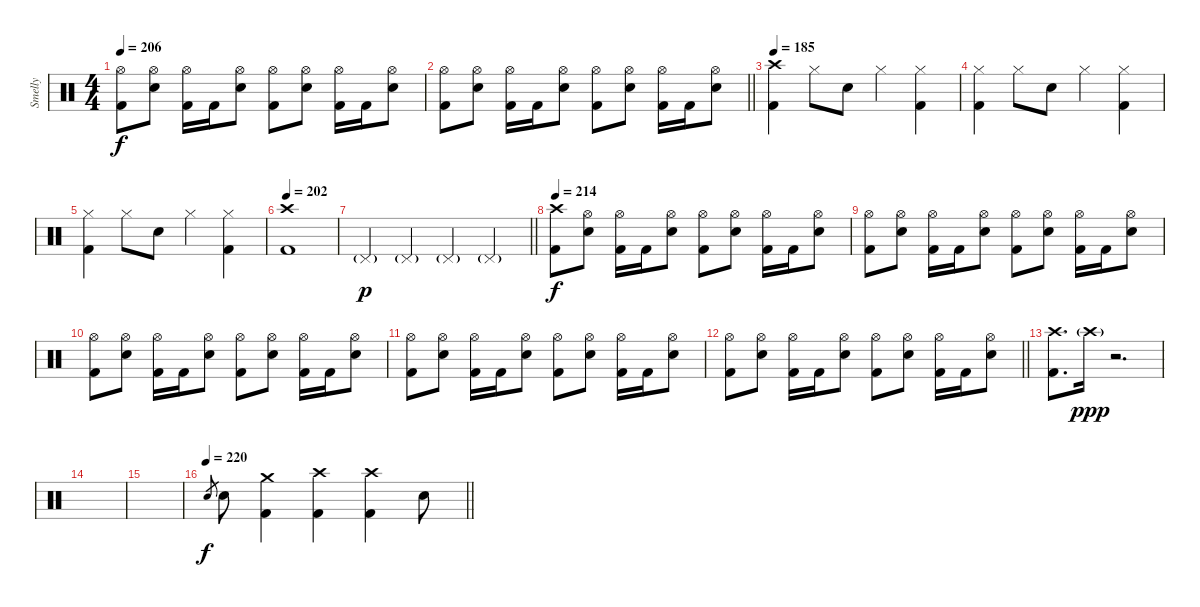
\track ("Smelly" "Smelly") {instrument percussion}
\staff {score}
\articulation defaults
\ts (4 4)
\tempo 206
\clef neutral
\ks c
("Hi-Hat (open)" "Kick (hit) 2").8{dy f} ("Hi-Hat (open)" "Electric Snare (hit)").8 ("Hi-Hat (open)" "Kick (hit) 2").16 "Kick (hit) 2".16 ("Hi-Hat (open)" "Electric Snare (hit)").8 ("Hi-Hat (open)" "Kick (hit) 2").8 ("Hi-Hat (open)" "Electric Snare (hit)").8 ("Hi-Hat (open)" "Kick (hit) 2").16 "Kick (hit) 2".16 ("Hi-Hat (open)" "Electric Snare (hit)").8 |
\barLineRight lightlight
("Hi-Hat (open)" "Kick (hit) 2").8 ("Hi-Hat (open)" "Electric Snare (hit)").8 ("Hi-Hat (open)" "Kick (hit) 2").16 "Kick (hit) 2".16 ("Hi-Hat (open)" "Electric Snare (hit)").8 ("Hi-Hat (open)" "Kick (hit) 2").8 ("Hi-Hat (open)" "Electric Snare (hit)").8 ("Hi-Hat (open)" "Kick (hit) 2").16 "Kick (hit) 2".16 ("Hi-Hat (open)" "Electric Snare (hit)").8 |
\section ("" "")
\tempo 185
("Crash high (hit)" "Kick (hit) 2").4 "Hi-Hat (closed)".8 "Electric Snare (hit)".8 "Hi-Hat (closed)".4 ("Hi-Hat (closed)" "Kick (hit) 2").4 |
("Hi-Hat (closed)" "Kick (hit) 2").4 "Hi-Hat (closed)".8 "Electric Snare (hit)".8 "Hi-Hat (closed)".4 ("Hi-Hat (closed)" "Kick (hit) 2").4 |
("Hi-Hat (closed)" "Kick (hit) 2").4 "Hi-Hat (closed)".8 "Electric Snare (hit)".8 "Hi-Hat (closed)".4 ("Hi-Hat (closed)" "Kick (hit) 2").4 |
\tempo 202
("Crash high (hit)" "Kick (hit) 2").1 |
\barLineRight lightlight "Pedal Hi-Hat (hit)"{g}.4{dy p} "Pedal Hi-Hat (hit)"{g}.4 "Pedal Hi-Hat (hit)"{g}.4 "Pedal Hi-Hat (hit)"{g}.4
|
\section ("" "")
\tempo 214
("Crash high (hit)" "Kick (hit) 2").8{dy f} ("Hi-Hat (open)" "Electric Snare (hit)").8 ("Hi-Hat (open)" "Kick (hit) 2").16 "Kick (hit) 2".16 ("Hi-Hat (open)" "Electric Snare (hit)").8 ("Hi-Hat (open)" "Kick (hit) 2").8 ("Hi-Hat (open)" "Electric Snare (hit)").8 ("Hi-Hat (open)" "Kick (hit) 2").16 "Kick (hit) 2".16 ("Hi-Hat (open)" "Electric Snare (hit)").8 |
("Hi-Hat (open)" "Kick (hit) 2").8 ("Hi-Hat (open)" "Electric Snare (hit)").8 ("Hi-Hat (open)" "Kick (hit) 2").16 "Kick (hit) 2".16 ("Hi-Hat (open)" "Electric Snare (hit)").8 ("Hi-Hat (open)" "Kick (hit) 2").8 ("Hi-Hat (open)" "Electric Snare (hit)").8 ("Hi-Hat (open)" "Kick (hit) 2").16 "Kick (hit) 2".16 ("Hi-Hat (open)" "Electric Snare (hit)").8 |
("Hi-Hat (open)" "Kick (hit) 2").8 ("Hi-Hat (open)" "Electric Snare (hit)").8 ("Hi-Hat (open)" "Kick (hit) 2").16 "Kick (hit) 2".16 ("Hi-Hat (open)" "Electric Snare (hit)").8 ("Hi-Hat (open)" "Kick (hit) 2").8 ("Hi-Hat (open)" "Electric Snare (hit)").8 ("Hi-Hat (open)" "Kick (hit) 2").16 "Kick (hit) 2".16 ("Hi-Hat (open)" "Electric Snare (hit)").8 |
("Hi-Hat (open)" "Kick (hit) 2").8 ("Hi-Hat (open)" "Electric Snare (hit)").8 ("Hi-Hat (open)" "Kick (hit) 2").16 "Kick (hit) 2".16 ("Hi-Hat (open)" "Electric Snare (hit)").8 ("Hi-Hat (open)" "Kick (hit) 2").8 ("Hi-Hat (open)" "Electric Snare (hit)").8 ("Hi-Hat (open)" "Kick (hit) 2").16 "Kick (hit) 2".16 ("Hi-Hat (open)" "Electric Snare (hit)").8 |
\barLineRight lightlight
("Hi-Hat (open)" "Kick (hit) 2").8 ("Hi-Hat (open)" "Electric Snare (hit)").8 ("Hi-Hat (open)" "Kick (hit) 2").16 "Kick (hit) 2".16 ("Hi-Hat (open)" "Electric Snare (hit)").8 ("Hi-Hat (open)" "Kick (hit) 2").8 ("Hi-Hat (open)" "Electric Snare (hit)").8 ("Hi-Hat (open)" "Kick (hit) 2").16 "Kick (hit) 2".16 ("Hi-Hat (open)" "Electric Snare (hit)").8 |
\section ("" "")
("Crash high (hit)" "Kick (hit) 2").8{d} "Crash high (hit)"{g}.16{dy ppp} r.2{d} |
|
|
\tempo 220
\barLineRight lightlight "Electric Snare (hit)".8{gr dy f} "Electric Snare (hit)".8
("Crash medium (hit)" "Kick (hit) 2").4 ("Crash high (hit)" "Kick (hit) 2").4 ("Crash high (hit)" "Kick (hit) 2").4 "Electric Snare (hit)".8
